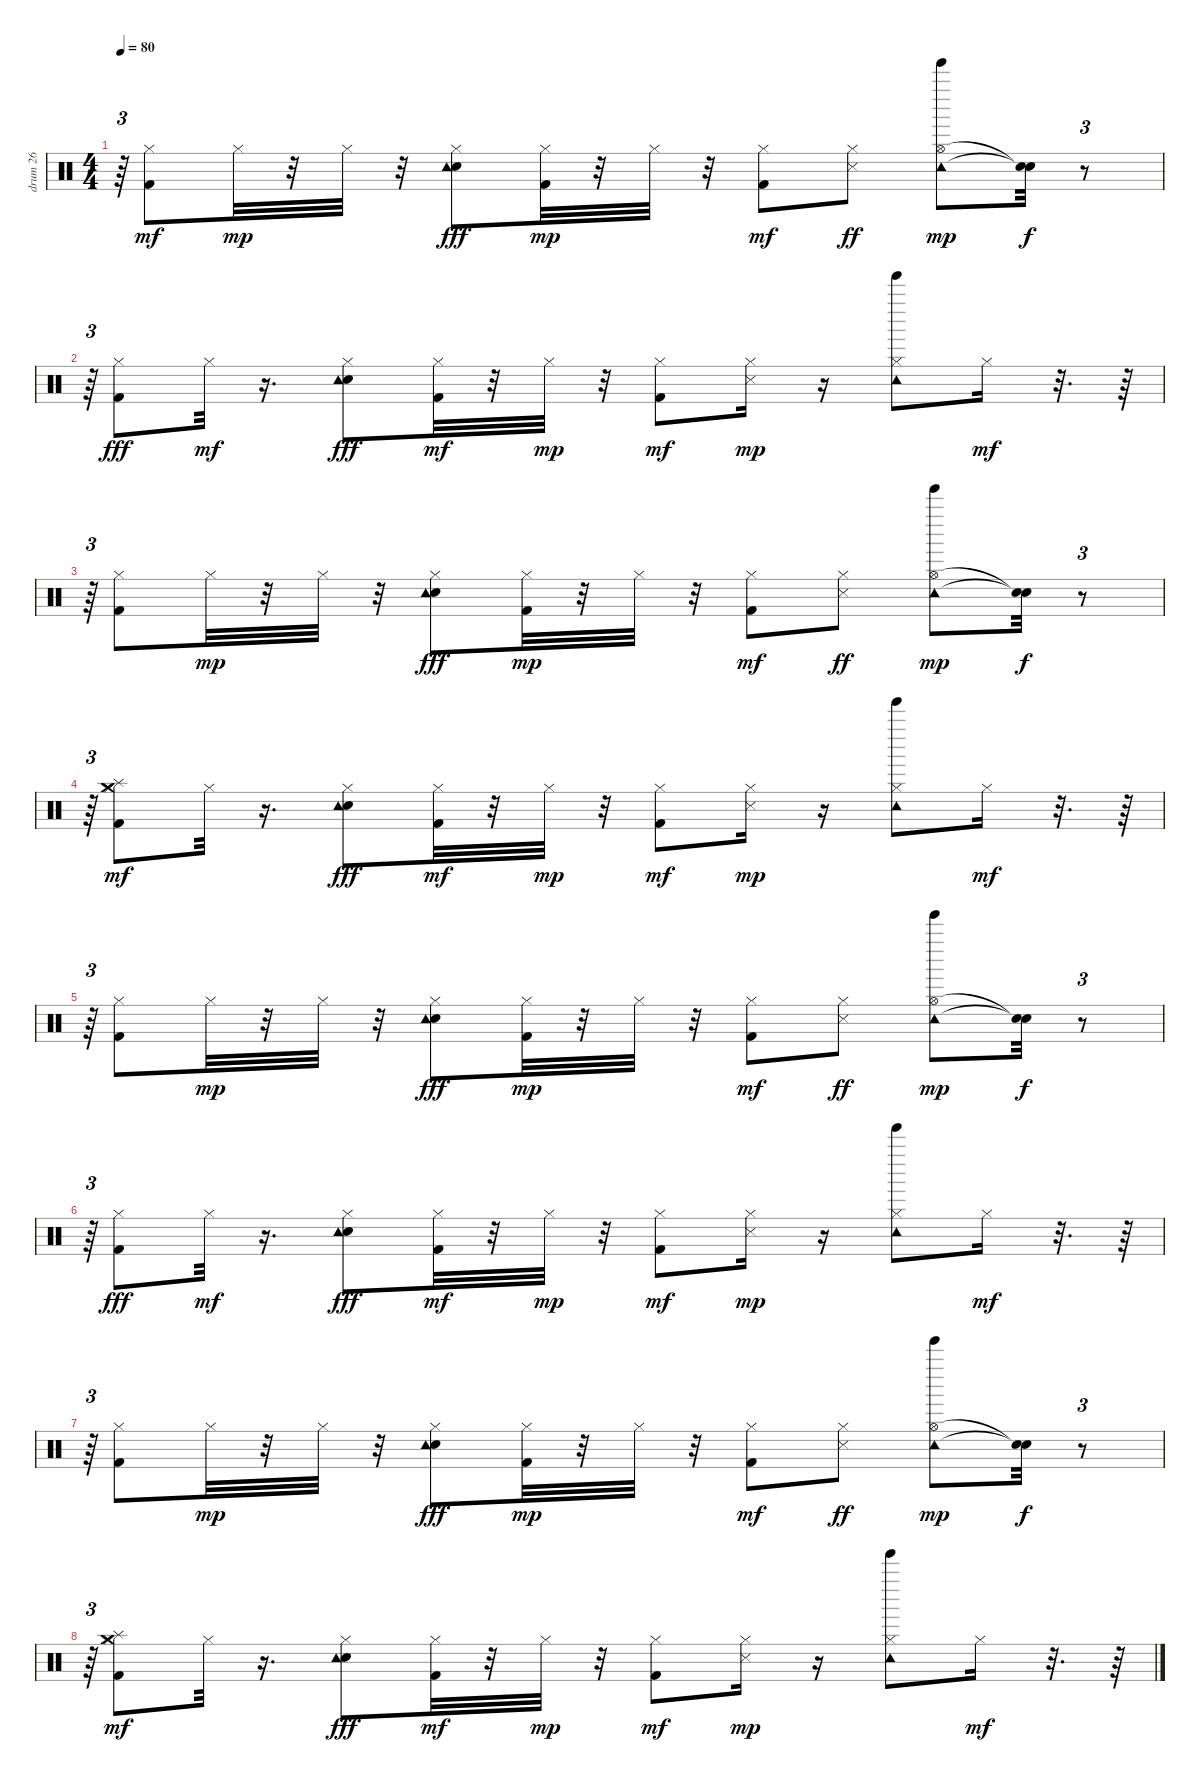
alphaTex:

\track ("drum 26" "drum 26") {instrument percussion}
\staff {score}
\articulation defaults
\ts (4 4)
\tempo 80
\clef neutral
\ks c
r.64{tu (3 2) dy mf} ("Kick (hit) 2" "Hi-Hat (closed)").8 "Hi-Hat (closed)".32{dy mp} r.32 "Hi-Hat (closed)".32 r.32 ("Hand Clap (hit)" "Hi-Hat (closed)" "Tambourine (hit)").8{dy fff} ("Kick (hit) 2" "Hi-Hat (closed)").32{dy mp} r.32 "Hi-Hat (closed)".32 r.32 ("Kick (hit) 2" "Hi-Hat (closed)").8{dy mf} ("Snare (side stick) 3" "Hi-Hat (closed)").8{dy ff} ("Hi-Hat (open)" "Tambourine (hit)" "Tinkle Bell (hit)").8{dy mp} ("Snare (hit)"{t} "Snare (hit)"{t}).32{dy f} r.8{tu (3 2)} |
r.64{tu (3 2)} ("Kick (hit) 2" "Hi-Hat (closed)").8{dy fff} "Hi-Hat (closed)".32{dy mf} r.16{d} ("Hand Clap (hit)" "Hi-Hat (closed)" "Tambourine (hit)").8{dy fff} ("Kick (hit) 2" "Hi-Hat (closed)").32{dy mf} r.32 "Hi-Hat (closed)".32{dy mp} r.32 ("Kick (hit) 2" "Hi-Hat (closed)").8{dy mf} ("Snare (side stick) 3" "Hi-Hat (closed)").16{dy mp} r.16 ("Hi-Hat (closed)" "Tambourine (hit)" "Tinkle Bell (hit)").8 "Hi-Hat (closed)".16{dy mf} r.32{d} r.64 |
r.64{tu (3 2)} ("Kick (hit) 2" "Hi-Hat (closed)").8 "Hi-Hat (closed)".32{dy mp} r.32 "Hi-Hat (closed)".32 r.32 ("Hand Clap (hit)" "Hi-Hat (closed)" "Tambourine (hit)").8{dy fff} ("Kick (hit) 2" "Hi-Hat (closed)").32{dy mp} r.32 "Hi-Hat (closed)".32 r.32 ("Kick (hit) 2" "Hi-Hat (closed)").8{dy mf} ("Snare (side stick) 3" "Hi-Hat (closed)").8{dy ff} ("Hi-Hat (open)" "Tambourine (hit)" "Tinkle Bell (hit)").8{dy mp} ("Snare (hit)"{t} "Snare (hit)"{t}).32{dy f} r.8{tu (3 2)} |
r.64{tu (3 2)} ("Kick (hit) 2" "Hi-Hat (closed)" "Splash (hit)" "Crash medium (hit)").8{dy mf} "Hi-Hat (closed)".32 r.16{d} ("Hand Clap (hit)" "Hi-Hat (closed)" "Tambourine (hit)").8{dy fff} ("Kick (hit) 2" "Hi-Hat (closed)").32{dy mf} r.32 "Hi-Hat (closed)".32{dy mp} r.32 ("Kick (hit) 2" "Hi-Hat (closed)").8{dy mf} ("Snare (side stick) 3" "Hi-Hat (closed)").16{dy mp} r.16 ("Hi-Hat (closed)" "Tambourine (hit)" "Tinkle Bell (hit)").8 "Hi-Hat (closed)".16{dy mf} r.32{d} r.64 |
r.64{tu (3 2)} ("Kick (hit) 2" "Hi-Hat (closed)").8 "Hi-Hat (closed)".32{dy mp} r.32 "Hi-Hat (closed)".32 r.32 ("Hand Clap (hit)" "Hi-Hat (closed)" "Tambourine (hit)").8{dy fff} ("Kick (hit) 2" "Hi-Hat (closed)").32{dy mp} r.32 "Hi-Hat (closed)".32 r.32 ("Kick (hit) 2" "Hi-Hat (closed)").8{dy mf} ("Snare (side stick) 3" "Hi-Hat (closed)").8{dy ff} ("Hi-Hat (open)" "Tambourine (hit)" "Tinkle Bell (hit)").8{dy mp} ("Snare (hit)"{t} "Snare (hit)"{t}).32{dy f} r.8{tu (3 2)} |
r.64{tu (3 2)} ("Kick (hit) 2" "Hi-Hat (closed)").8{dy fff} "Hi-Hat (closed)".32{dy mf} r.16{d} ("Hand Clap (hit)" "Hi-Hat (closed)" "Tambourine (hit)").8{dy fff} ("Kick (hit) 2" "Hi-Hat (closed)").32{dy mf} r.32 "Hi-Hat (closed)".32{dy mp} r.32 ("Kick (hit) 2" "Hi-Hat (closed)").8{dy mf} ("Snare (side stick) 3" "Hi-Hat (closed)").16{dy mp} r.16 ("Hi-Hat (closed)" "Tambourine (hit)" "Tinkle Bell (hit)").8 "Hi-Hat (closed)".16{dy mf} r.32{d} r.64 |
r.64{tu (3 2)} ("Kick (hit) 2" "Hi-Hat (closed)").8 "Hi-Hat (closed)".32{dy mp} r.32 "Hi-Hat (closed)".32 r.32 ("Hand Clap (hit)" "Hi-Hat (closed)" "Tambourine (hit)").8{dy fff} ("Kick (hit) 2" "Hi-Hat (closed)").32{dy mp} r.32 "Hi-Hat (closed)".32 r.32 ("Kick (hit) 2" "Hi-Hat (closed)").8{dy mf} ("Snare (side stick) 3" "Hi-Hat (closed)").8{dy ff} ("Hi-Hat (open)" "Tambourine (hit)" "Tinkle Bell (hit)").8{dy mp} ("Snare (hit)"{t} "Snare (hit)"{t}).32{dy f} r.8{tu (3 2)} |
r.64{tu (3 2)} ("Kick (hit) 2" "Hi-Hat (closed)" "Splash (hit)" "Crash medium (hit)").8{dy mf} "Hi-Hat (closed)".32 r.16{d} ("Hand Clap (hit)" "Hi-Hat (closed)" "Tambourine (hit)").8{dy fff} ("Kick (hit) 2" "Hi-Hat (closed)").32{dy mf} r.32 "Hi-Hat (closed)".32{dy mp} r.32 ("Kick (hit) 2" "Hi-Hat (closed)").8{dy mf} ("Snare (side stick) 3" "Hi-Hat (closed)").16{dy mp} r.16 ("Hi-Hat (closed)" "Tambourine (hit)" "Tinkle Bell (hit)").8 "Hi-Hat (closed)".16{dy mf} r.32{d} r.64
